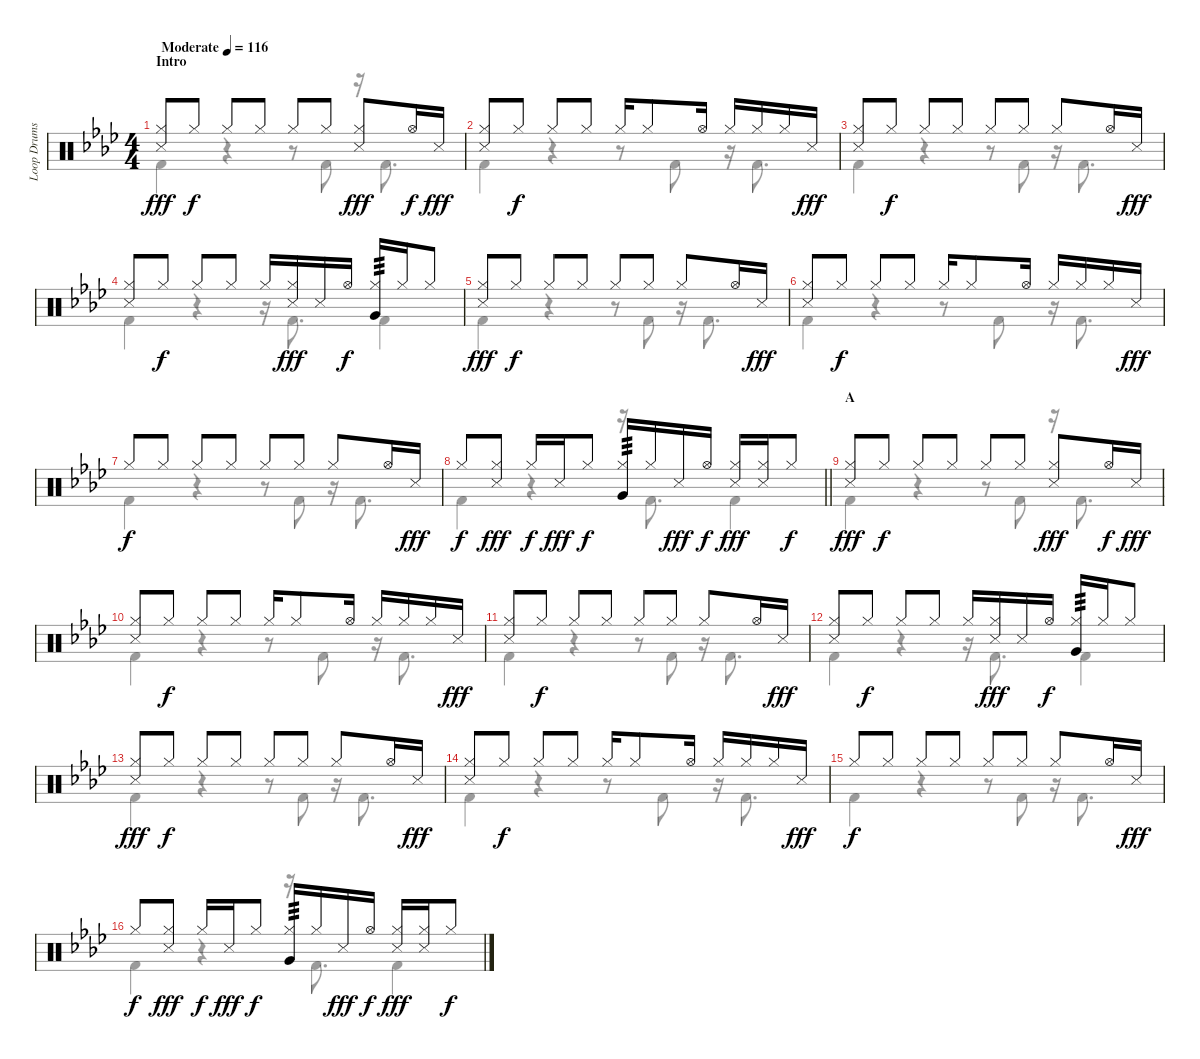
\track ("Loop Drums I" "Loop Drums") {instrument percussion}
\staff {score}
\articulation defaults
\voice
\ts (4 4)
\section ("" "Intro")
\tempo (116 "Moderate")
\clef neutral
\ks ab
("Hi-Hat (closed)" "Snare (side stick) 3").8{dy fff} "Hi-Hat (closed)".8{dy f} "Hi-Hat (closed)".8 "Hi-Hat (closed)".8 "Hi-Hat (closed)".8 "Hi-Hat (closed)".8 ("Hi-Hat (closed)" "Snare (side stick) 3").8{dy fff} "Hi-Hat (open)".16{dy f} "Snare (side stick) 3".16{dy fff} |
("Hi-Hat (closed)" "Snare (side stick) 3").8 "Hi-Hat (closed)".8{dy f} "Hi-Hat (closed)".8 "Hi-Hat (closed)".8 "Hi-Hat (closed)".16 "Hi-Hat (closed)".8 "Hi-Hat (open)".16 "Hi-Hat (closed)".16 "Hi-Hat (closed)".16 "Hi-Hat (closed)".16 "Snare (side stick) 3".16{dy fff} |
("Hi-Hat (closed)" "Snare (side stick) 3").8 "Hi-Hat (closed)".8{dy f} "Hi-Hat (closed)".8 "Hi-Hat (closed)".8 "Hi-Hat (closed)".8 "Hi-Hat (closed)".8 "Hi-Hat (closed)".8 "Hi-Hat (open)".16 "Snare (side stick) 3".16{dy fff} |
("Hi-Hat (closed)" "Snare (side stick) 3").8 "Hi-Hat (closed)".8{dy f} "Hi-Hat (closed)".8 "Hi-Hat (closed)".8 "Hi-Hat (closed)".16 ("Hi-Hat (closed)" "Snare (side stick) 3").16{dy fff} "Snare (side stick) 3".16 "Hi-Hat (open)".16{dy f} ("Hi-Hat (closed)" "Very Low Tom (hit)").16{tp 3} "Hi-Hat (closed)".16 "Hi-Hat (closed)".8 |
("Hi-Hat (closed)" "Snare (side stick) 3").8{dy fff} "Hi-Hat (closed)".8{dy f} "Hi-Hat (closed)".8 "Hi-Hat (closed)".8 "Hi-Hat (closed)".8 "Hi-Hat (closed)".8 "Hi-Hat (closed)".8 "Hi-Hat (open)".16 "Snare (side stick) 3".16{dy fff} |
("Hi-Hat (closed)" "Snare (side stick) 3").8 "Hi-Hat (closed)".8{dy f} "Hi-Hat (closed)".8 "Hi-Hat (closed)".8 "Hi-Hat (closed)".16 "Hi-Hat (closed)".8 "Hi-Hat (open)".16 "Hi-Hat (closed)".16 "Hi-Hat (closed)".16 "Hi-Hat (closed)".16 "Snare (side stick) 3".16{dy fff} |
"Hi-Hat (closed)".8{dy f} "Hi-Hat (closed)".8 "Hi-Hat (closed)".8 "Hi-Hat (closed)".8 "Hi-Hat (closed)".8 "Hi-Hat (closed)".8 "Hi-Hat (closed)".8 "Hi-Hat (open)".16 "Snare (side stick) 3".16{dy fff} |
\barLineRight lightlight "Hi-Hat (closed)".8{dy f}
("Hi-Hat (closed)" "Snare (side stick) 3").8{dy fff} "Hi-Hat (closed)".16{dy f} "Snare (side stick) 3".16{dy fff} "Hi-Hat (closed)".8{dy f} ("Hi-Hat (closed)" "Very Low Tom (hit)").16{tp 3} "Hi-Hat (closed)".16 "Snare (side stick) 3".16{dy fff} "Hi-Hat (open)".16{dy f} ("Hi-Hat (closed)" "Snare (side stick) 3").16{dy fff} ("Hi-Hat (closed)" "Snare (side stick) 3").16 "Hi-Hat (closed)".8{dy f} |
\section ("" "A")
("Hi-Hat (closed)" "Snare (side stick) 3").8{dy fff} "Hi-Hat (closed)".8{dy f} "Hi-Hat (closed)".8 "Hi-Hat (closed)".8 "Hi-Hat (closed)".8 "Hi-Hat (closed)".8 ("Hi-Hat (closed)" "Snare (side stick) 3").8{dy fff} "Hi-Hat (open)".16{dy f} "Snare (side stick) 3".16{dy fff} |
("Hi-Hat (closed)" "Snare (side stick) 3").8 "Hi-Hat (closed)".8{dy f} "Hi-Hat (closed)".8 "Hi-Hat (closed)".8 "Hi-Hat (closed)".16 "Hi-Hat (closed)".8 "Hi-Hat (open)".16 "Hi-Hat (closed)".16 "Hi-Hat (closed)".16 "Hi-Hat (closed)".16 "Snare (side stick) 3".16{dy fff} |
("Hi-Hat (closed)" "Snare (side stick) 3").8 "Hi-Hat (closed)".8{dy f} "Hi-Hat (closed)".8 "Hi-Hat (closed)".8 "Hi-Hat (closed)".8 "Hi-Hat (closed)".8 "Hi-Hat (closed)".8 "Hi-Hat (open)".16 "Snare (side stick) 3".16{dy fff} |
("Hi-Hat (closed)" "Snare (side stick) 3").8 "Hi-Hat (closed)".8{dy f} "Hi-Hat (closed)".8 "Hi-Hat (closed)".8 "Hi-Hat (closed)".16 ("Hi-Hat (closed)" "Snare (side stick) 3").16{dy fff} "Snare (side stick) 3".16 "Hi-Hat (open)".16{dy f} ("Hi-Hat (closed)" "Very Low Tom (hit)").16{tp 3} "Hi-Hat (closed)".16 "Hi-Hat (closed)".8 |
("Hi-Hat (closed)" "Snare (side stick) 3").8{dy fff} "Hi-Hat (closed)".8{dy f} "Hi-Hat (closed)".8 "Hi-Hat (closed)".8 "Hi-Hat (closed)".8 "Hi-Hat (closed)".8 "Hi-Hat (closed)".8 "Hi-Hat (open)".16 "Snare (side stick) 3".16{dy fff} |
("Hi-Hat (closed)" "Snare (side stick) 3").8 "Hi-Hat (closed)".8{dy f} "Hi-Hat (closed)".8 "Hi-Hat (closed)".8 "Hi-Hat (closed)".16 "Hi-Hat (closed)".8 "Hi-Hat (open)".16 "Hi-Hat (closed)".16 "Hi-Hat (closed)".16 "Hi-Hat (closed)".16 "Snare (side stick) 3".16{dy fff} |
"Hi-Hat (closed)".8{dy f} "Hi-Hat (closed)".8 "Hi-Hat (closed)".8 "Hi-Hat (closed)".8 "Hi-Hat (closed)".8 "Hi-Hat (closed)".8 "Hi-Hat (closed)".8 "Hi-Hat (open)".16 "Snare (side stick) 3".16{dy fff} |
"Hi-Hat (closed)".8{dy f} ("Hi-Hat (closed)" "Snare (side stick) 3").8{dy fff} "Hi-Hat (closed)".16{dy f} "Snare (side stick) 3".16{dy fff} "Hi-Hat (closed)".8{dy f} ("Hi-Hat (closed)" "Very Low Tom (hit)").16{tp 3} "Hi-Hat (closed)".16 "Snare (side stick) 3".16{dy fff} "Hi-Hat (open)".16{dy f} ("Hi-Hat (closed)" "Snare (side stick) 3").16{dy fff} ("Hi-Hat (closed)" "Snare (side stick) 3").16 "Hi-Hat (closed)".8{dy f}
\voice
\clef neutral
\ottava regular
\simile none
\ks ab "Kick (hit) 2".4{dy fff}
r.4 r.8 "Kick (hit) 2".8 r.16 "Kick (hit) 2".8{d} |
"Kick (hit) 2".4 r.4 r.8 "Kick (hit) 2".8 r.16 "Kick (hit) 2".8{d} |
"Kick (hit) 2".4 r.4 r.8 "Kick (hit) 2".8 r.16 "Kick (hit) 2".8{d} |
"Kick (hit) 2".4 r.4 r.16 "Kick (hit) 2".8{d} "Kick (hit) 2".4 |
"Kick (hit) 2".4 r.4 r.8 "Kick (hit) 2".8 r.16 "Kick (hit) 2".8{d} |
"Kick (hit) 2".4 r.4 r.8 "Kick (hit) 2".8 r.16 "Kick (hit) 2".8{d} |
"Kick (hit) 2".4 r.4 r.8 "Kick (hit) 2".8 r.16 "Kick (hit) 2".8{d} |
\barLineRight lightlight "Kick (hit) 2".4
r.4 r.16 "Kick (hit) 2".8{d} "Kick (hit) 2".4 |
"Kick (hit) 2".4 r.4 r.8 "Kick (hit) 2".8 r.16 "Kick (hit) 2".8{d} |
"Kick (hit) 2".4 r.4 r.8 "Kick (hit) 2".8 r.16 "Kick (hit) 2".8{d} |
"Kick (hit) 2".4 r.4 r.8 "Kick (hit) 2".8 r.16 "Kick (hit) 2".8{d} |
"Kick (hit) 2".4 r.4 r.16 "Kick (hit) 2".8{d} "Kick (hit) 2".4 |
"Kick (hit) 2".4 r.4 r.8 "Kick (hit) 2".8 r.16 "Kick (hit) 2".8{d} |
"Kick (hit) 2".4 r.4 r.8 "Kick (hit) 2".8 r.16 "Kick (hit) 2".8{d} |
"Kick (hit) 2".4 r.4 r.8 "Kick (hit) 2".8 r.16 "Kick (hit) 2".8{d} |
"Kick (hit) 2".4 r.4 r.16 "Kick (hit) 2".8{d} "Kick (hit) 2".4
